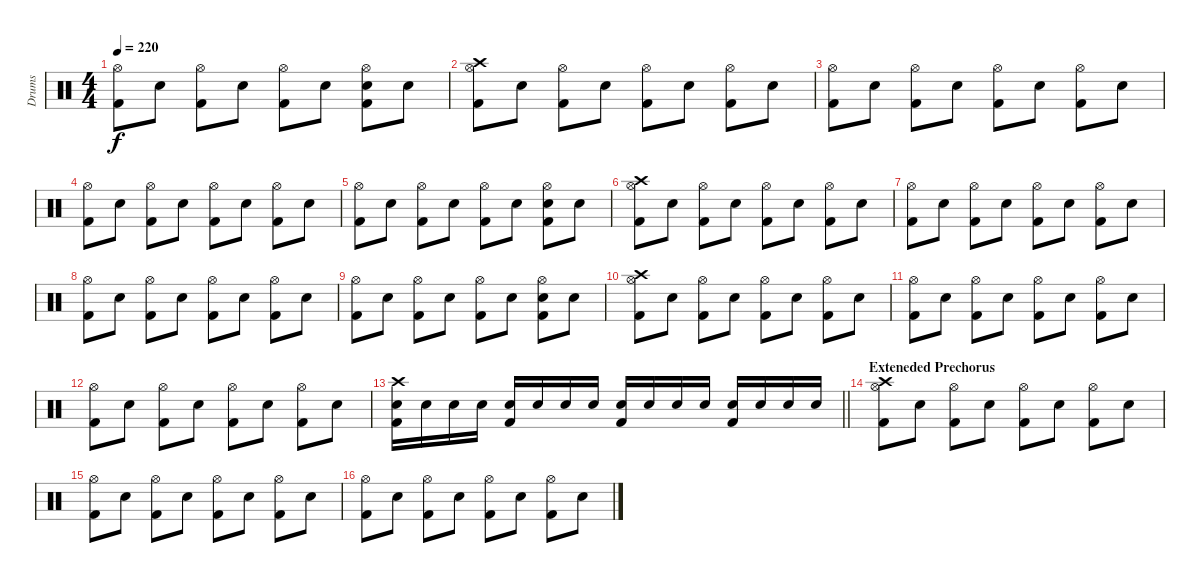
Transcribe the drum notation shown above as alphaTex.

\track ("Drums" "Drums") {instrument percussion}
\staff {score}
\articulation defaults
\ts (4 4)
\tempo 220
\clef neutral
\ks c
("Hi-Hat (open)" "Kick (hit) 2").8{dy f} "Snare (hit) 2".8 ("Hi-Hat (open)" "Kick (hit) 2").8 "Snare (hit) 2".8 ("Hi-Hat (open)" "Kick (hit) 2").8 "Snare (hit) 2".8 ("Hi-Hat (open)" "Snare (hit) 2" "Kick (hit) 2").8 "Snare (hit) 2".8 |
("Crash high (hit)" "Hi-Hat (open)" "Kick (hit) 2").8 "Snare (hit) 2".8 ("Hi-Hat (open)" "Kick (hit) 2").8 "Snare (hit) 2".8 ("Hi-Hat (open)" "Kick (hit) 2").8 "Snare (hit) 2".8 ("Hi-Hat (open)" "Kick (hit) 2").8 "Snare (hit) 2".8 |
("Hi-Hat (open)" "Kick (hit) 2").8 "Snare (hit) 2".8 ("Hi-Hat (open)" "Kick (hit) 2").8 "Snare (hit) 2".8 ("Hi-Hat (open)" "Kick (hit) 2").8 "Snare (hit) 2".8 ("Hi-Hat (open)" "Kick (hit) 2").8 "Snare (hit) 2".8 |
("Hi-Hat (open)" "Kick (hit) 2").8 "Snare (hit) 2".8 ("Hi-Hat (open)" "Kick (hit) 2").8 "Snare (hit) 2".8 ("Hi-Hat (open)" "Kick (hit) 2").8 "Snare (hit) 2".8 ("Hi-Hat (open)" "Kick (hit) 2").8 "Snare (hit) 2".8 |
("Hi-Hat (open)" "Kick (hit) 2").8 "Snare (hit) 2".8 ("Hi-Hat (open)" "Kick (hit) 2").8 "Snare (hit) 2".8 ("Hi-Hat (open)" "Kick (hit) 2").8 "Snare (hit) 2".8 ("Hi-Hat (open)" "Snare (hit) 2" "Kick (hit) 2").8 "Snare (hit) 2".8 |
("Crash high (hit)" "Hi-Hat (open)" "Kick (hit) 2").8 "Snare (hit) 2".8 ("Hi-Hat (open)" "Kick (hit) 2").8 "Snare (hit) 2".8 ("Hi-Hat (open)" "Kick (hit) 2").8 "Snare (hit) 2".8 ("Hi-Hat (open)" "Kick (hit) 2").8 "Snare (hit) 2".8 |
("Hi-Hat (open)" "Kick (hit) 2").8 "Snare (hit) 2".8 ("Hi-Hat (open)" "Kick (hit) 2").8 "Snare (hit) 2".8 ("Hi-Hat (open)" "Kick (hit) 2").8 "Snare (hit) 2".8 ("Hi-Hat (open)" "Kick (hit) 2").8 "Snare (hit) 2".8 |
("Hi-Hat (open)" "Kick (hit) 2").8 "Snare (hit) 2".8 ("Hi-Hat (open)" "Kick (hit) 2").8 "Snare (hit) 2".8 ("Hi-Hat (open)" "Kick (hit) 2").8 "Snare (hit) 2".8 ("Hi-Hat (open)" "Kick (hit) 2").8 "Snare (hit) 2".8 |
("Hi-Hat (open)" "Kick (hit) 2").8 "Snare (hit) 2".8 ("Hi-Hat (open)" "Kick (hit) 2").8 "Snare (hit) 2".8 ("Hi-Hat (open)" "Kick (hit) 2").8 "Snare (hit) 2".8 ("Hi-Hat (open)" "Snare (hit) 2" "Kick (hit) 2").8 "Snare (hit) 2".8 |
("Crash high (hit)" "Hi-Hat (open)" "Kick (hit) 2").8 "Snare (hit) 2".8 ("Hi-Hat (open)" "Kick (hit) 2").8 "Snare (hit) 2".8 ("Hi-Hat (open)" "Kick (hit) 2").8 "Snare (hit) 2".8 ("Hi-Hat (open)" "Kick (hit) 2").8 "Snare (hit) 2".8 |
("Hi-Hat (open)" "Kick (hit) 2").8 "Snare (hit) 2".8 ("Hi-Hat (open)" "Kick (hit) 2").8 "Snare (hit) 2".8 ("Hi-Hat (open)" "Kick (hit) 2").8 "Snare (hit) 2".8 ("Hi-Hat (open)" "Kick (hit) 2").8 "Snare (hit) 2".8 |
("Hi-Hat (open)" "Kick (hit) 2").8 "Snare (hit) 2".8 ("Hi-Hat (open)" "Kick (hit) 2").8 "Snare (hit) 2".8 ("Hi-Hat (open)" "Kick (hit) 2").8 "Snare (hit) 2".8 ("Hi-Hat (open)" "Kick (hit) 2").8 "Snare (hit) 2".8 |
\barLineRight lightlight
("Crash high (hit)" "Snare (hit) 2" "Kick (hit) 2").16 "Snare (hit) 2".16 "Snare (hit) 2".16 "Snare (hit) 2".16 ("Snare (hit) 2" "Kick (hit) 2").16 "Snare (hit) 2".16 "Snare (hit) 2".16 "Snare (hit) 2".16 ("Snare (hit) 2" "Kick (hit) 2").16 "Snare (hit) 2".16 "Snare (hit) 2".16 "Snare (hit) 2".16 ("Snare (hit) 2" "Kick (hit) 2").16 "Snare (hit) 2".16 "Snare (hit) 2".16 "Snare (hit) 2".16 |
\section ("" "Exteneded Prechorus")
("Crash high (hit)" "Hi-Hat (open)" "Kick (hit) 2").8 "Snare (hit) 2".8 ("Hi-Hat (open)" "Kick (hit) 2").8 "Snare (hit) 2".8 ("Hi-Hat (open)" "Kick (hit) 2").8 "Snare (hit) 2".8 ("Hi-Hat (open)" "Kick (hit) 2").8 "Snare (hit) 2".8 |
("Hi-Hat (open)" "Kick (hit) 2").8 "Snare (hit) 2".8 ("Hi-Hat (open)" "Kick (hit) 2").8 "Snare (hit) 2".8 ("Hi-Hat (open)" "Kick (hit) 2").8 "Snare (hit) 2".8 ("Hi-Hat (open)" "Kick (hit) 2").8 "Snare (hit) 2".8 |
("Hi-Hat (open)" "Kick (hit) 2").8 "Snare (hit) 2".8 ("Hi-Hat (open)" "Kick (hit) 2").8 "Snare (hit) 2".8 ("Hi-Hat (open)" "Kick (hit) 2").8 "Snare (hit) 2".8 ("Hi-Hat (open)" "Kick (hit) 2").8 "Snare (hit) 2".8
